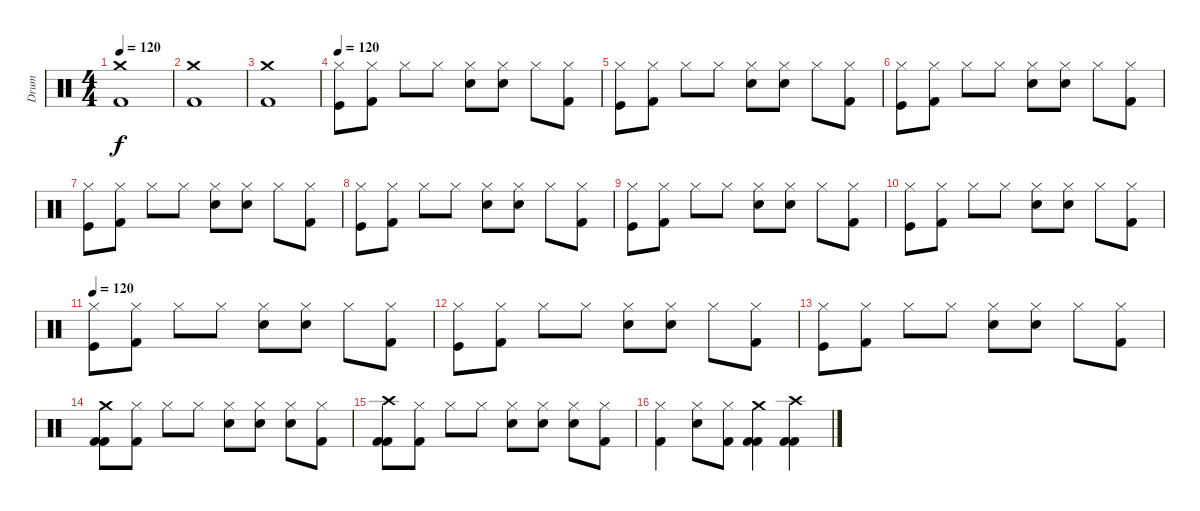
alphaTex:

\track ("Drum" "Drum") {instrument percussion}
\staff {score}
\articulation defaults
\ts (4 4)
\tempo 120
\clef neutral
\ks c
("Crash medium (hit)" "Kick (hit) 2").1{dy f} |
("Crash medium (hit)" "Kick (hit) 2").1 |
("Crash medium (hit)" "Kick (hit) 2").1 |
\tempo 120
("Hi-Hat (closed)" "Kick (hit)").8 ("Hi-Hat (closed)" "Kick (hit) 2").8 "Hi-Hat (closed)".8 "Hi-Hat (closed)".8 ("Hi-Hat (closed)" "Snare (hit) 2").8 ("Hi-Hat (closed)" "Snare (hit) 2").8 "Hi-Hat (closed)".8 ("Hi-Hat (closed)" "Kick (hit) 2").8 |
("Hi-Hat (closed)" "Kick (hit)").8 ("Hi-Hat (closed)" "Kick (hit) 2").8 "Hi-Hat (closed)".8 "Hi-Hat (closed)".8 ("Hi-Hat (closed)" "Snare (hit) 2").8 ("Hi-Hat (closed)" "Snare (hit) 2").8 "Hi-Hat (closed)".8 ("Hi-Hat (closed)" "Kick (hit) 2").8 |
("Hi-Hat (closed)" "Kick (hit)").8 ("Hi-Hat (closed)" "Kick (hit) 2").8 "Hi-Hat (closed)".8 "Hi-Hat (closed)".8 ("Hi-Hat (closed)" "Snare (hit) 2").8 ("Hi-Hat (closed)" "Snare (hit) 2").8 "Hi-Hat (closed)".8 ("Hi-Hat (closed)" "Kick (hit) 2").8 |
("Hi-Hat (closed)" "Kick (hit)").8 ("Hi-Hat (closed)" "Kick (hit) 2").8 "Hi-Hat (closed)".8 "Hi-Hat (closed)".8 ("Hi-Hat (closed)" "Snare (hit) 2").8 ("Hi-Hat (closed)" "Snare (hit) 2").8 "Hi-Hat (closed)".8 ("Hi-Hat (closed)" "Kick (hit) 2").8 |
("Hi-Hat (closed)" "Kick (hit)").8 ("Hi-Hat (closed)" "Kick (hit) 2").8 "Hi-Hat (closed)".8 "Hi-Hat (closed)".8 ("Hi-Hat (closed)" "Snare (hit) 2").8 ("Hi-Hat (closed)" "Snare (hit) 2").8 "Hi-Hat (closed)".8 ("Hi-Hat (closed)" "Kick (hit) 2").8 |
("Hi-Hat (closed)" "Kick (hit)").8 ("Hi-Hat (closed)" "Kick (hit) 2").8 "Hi-Hat (closed)".8 "Hi-Hat (closed)".8 ("Hi-Hat (closed)" "Snare (hit) 2").8 ("Hi-Hat (closed)" "Snare (hit) 2").8 "Hi-Hat (closed)".8 ("Hi-Hat (closed)" "Kick (hit) 2").8 |
("Hi-Hat (closed)" "Kick (hit)").8 ("Hi-Hat (closed)" "Kick (hit) 2").8 "Hi-Hat (closed)".8 "Hi-Hat (closed)".8 ("Hi-Hat (closed)" "Snare (hit) 2").8 ("Hi-Hat (closed)" "Snare (hit) 2").8 "Hi-Hat (closed)".8 ("Hi-Hat (closed)" "Kick (hit) 2").8 |
\tempo 120
("Hi-Hat (closed)" "Kick (hit)").8 ("Hi-Hat (closed)" "Kick (hit) 2").8 "Hi-Hat (closed)".8 "Hi-Hat (closed)".8 ("Hi-Hat (closed)" "Snare (hit) 2").8 ("Hi-Hat (closed)" "Snare (hit) 2").8 "Hi-Hat (closed)".8 ("Hi-Hat (closed)" "Kick (hit) 2").8 |
("Hi-Hat (closed)" "Kick (hit)").8 ("Hi-Hat (closed)" "Kick (hit) 2").8 "Hi-Hat (closed)".8 "Hi-Hat (closed)".8 ("Hi-Hat (closed)" "Snare (hit) 2").8 ("Hi-Hat (closed)" "Snare (hit) 2").8 "Hi-Hat (closed)".8 ("Hi-Hat (closed)" "Kick (hit) 2").8 |
("Hi-Hat (closed)" "Kick (hit)").8 ("Hi-Hat (closed)" "Kick (hit) 2").8 "Hi-Hat (closed)".8 "Hi-Hat (closed)".8 ("Hi-Hat (closed)" "Snare (hit) 2").8 ("Hi-Hat (closed)" "Snare (hit) 2").8 "Hi-Hat (closed)".8 ("Hi-Hat (closed)" "Kick (hit) 2").8 |
("Crash medium (hit)" "Kick (hit) 2" "Kick (hit) 2").8 ("Hi-Hat (closed)" "Kick (hit) 2").8 "Hi-Hat (closed)".8 "Hi-Hat (closed)".8 ("Hi-Hat (closed)" "Snare (hit) 2").8 ("Hi-Hat (closed)" "Snare (hit) 2").8 ("Hi-Hat (closed)" "Snare (hit) 2").8 ("Hi-Hat (closed)" "Kick (hit) 2").8 |
("Crash high (hit)" "Kick (hit) 2" "Kick (hit) 2").8 ("Hi-Hat (closed)" "Kick (hit) 2").8 "Hi-Hat (closed)".8 "Hi-Hat (closed)".8 ("Hi-Hat (closed)" "Snare (hit) 2").8 ("Hi-Hat (closed)" "Snare (hit) 2").8 ("Hi-Hat (closed)" "Snare (hit) 2").8 ("Hi-Hat (closed)" "Kick (hit) 2").8 |
("Hi-Hat (closed)" "Kick (hit) 2").4 ("Hi-Hat (closed)" "Snare (hit) 2").8 ("Hi-Hat (closed)" "Kick (hit) 2").8 ("Crash medium (hit)" "Kick (hit) 2" "Kick (hit) 2").4 ("Crash high (hit)" "Kick (hit) 2" "Kick (hit) 2").4
